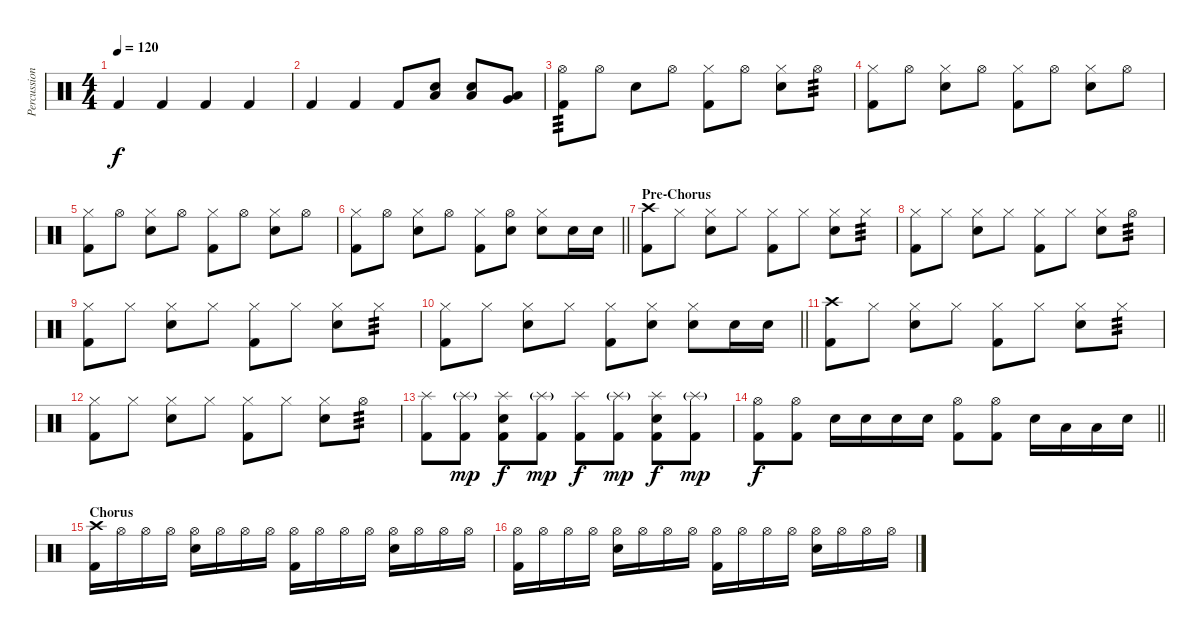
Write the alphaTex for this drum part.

\track ("Percussion" "Percussion") {instrument percussion}
\staff {score}
\articulation defaults
\ts (4 4)
\tempo 120
\clef neutral
\ks c "Kick (hit) 2".4{dy f} "Kick (hit) 2".4 "Kick (hit) 2".4 "Kick (hit) 2".4
|
"Kick (hit) 2".4 "Kick (hit) 2".4 "Kick (hit) 2".8 ("Electric Snare (hit)" "Low Floor Tom (hit)").8 ("Electric Snare (hit)" "Low Floor Tom (hit)").8 ("Low Tom (hit)" "Very Low Tom (hit)").8 |
("Kick (hit) 2" "Hi-Hat (open)").8{tp 3} "Hi-Hat (open)".8 "Electric Snare (hit)".8 "Hi-Hat (open)".8 ("Kick (hit) 2" "Hi-Hat (closed)").8 "Hi-Hat (open)".8 ("Electric Snare (hit)" "Hi-Hat (closed)").8 "Hi-Hat (open)".8{tp 3} |
("Kick (hit) 2" "Hi-Hat (closed)").8 "Hi-Hat (open)".8 ("Electric Snare (hit)" "Hi-Hat (closed)").8 "Hi-Hat (open)".8 ("Kick (hit) 2" "Hi-Hat (closed)").8 "Hi-Hat (open)".8 ("Electric Snare (hit)" "Hi-Hat (closed)").8 "Hi-Hat (open)".8 |
("Kick (hit) 2" "Hi-Hat (closed)").8 "Hi-Hat (open)".8 ("Electric Snare (hit)" "Hi-Hat (closed)").8 "Hi-Hat (open)".8 ("Kick (hit) 2" "Hi-Hat (closed)").8 "Hi-Hat (open)".8 ("Electric Snare (hit)" "Hi-Hat (closed)").8 "Hi-Hat (open)".8 |
\barLineRight lightlight
("Kick (hit) 2" "Hi-Hat (closed)").8 "Hi-Hat (open)".8 ("Electric Snare (hit)" "Hi-Hat (closed)").8 "Hi-Hat (open)".8 ("Kick (hit) 2" "Hi-Hat (closed)").8 ("Electric Snare (hit)" "Hi-Hat (open)").8 ("Electric Snare (hit)" "Hi-Hat (closed)").8 "Electric Snare (hit)".16 "Electric Snare (hit)".16 |
\section ("" "Pre-Chorus")
("Kick (hit) 2" "Crash high (hit)").8 "Hi-Hat (closed)".8 ("Electric Snare (hit)" "Hi-Hat (closed)").8 "Hi-Hat (closed)".8 ("Kick (hit) 2" "Hi-Hat (closed)").8 "Hi-Hat (closed)".8 ("Electric Snare (hit)" "Hi-Hat (closed)").8 "Hi-Hat (closed)".8{tp 3} |
("Kick (hit) 2" "Hi-Hat (closed)").8 "Hi-Hat (closed)".8 ("Electric Snare (hit)" "Hi-Hat (closed)").8 "Hi-Hat (closed)".8 ("Kick (hit) 2" "Hi-Hat (closed)").8 "Hi-Hat (closed)".8 ("Electric Snare (hit)" "Hi-Hat (closed)").8 "Hi-Hat (open)".8{tp 3} |
("Kick (hit) 2" "Hi-Hat (closed)").8 "Hi-Hat (closed)".8 ("Electric Snare (hit)" "Hi-Hat (closed)").8 "Hi-Hat (closed)".8 ("Kick (hit) 2" "Hi-Hat (closed)").8 "Hi-Hat (closed)".8 ("Electric Snare (hit)" "Hi-Hat (closed)").8 "Hi-Hat (closed)".8{tp 3} |
\barLineRight lightlight
("Kick (hit) 2" "Hi-Hat (closed)").8 "Hi-Hat (closed)".8 ("Electric Snare (hit)" "Hi-Hat (closed)").8 "Hi-Hat (closed)".8 ("Kick (hit) 2" "Hi-Hat (closed)").8 ("Electric Snare (hit)" "Hi-Hat (closed)").8 ("Electric Snare (hit)" "Hi-Hat (closed)").8 "Electric Snare (hit)".16 "Electric Snare (hit)".16 |
("Kick (hit) 2" "Crash high (hit)").8 "Hi-Hat (closed)".8 ("Electric Snare (hit)" "Hi-Hat (closed)").8 "Hi-Hat (closed)".8 ("Kick (hit) 2" "Hi-Hat (closed)").8 "Hi-Hat (closed)".8 ("Electric Snare (hit)" "Hi-Hat (closed)").8 "Hi-Hat (closed)".8{tp 3} |
("Kick (hit) 2" "Hi-Hat (closed)").8 "Hi-Hat (closed)".8 ("Electric Snare (hit)" "Hi-Hat (closed)").8 "Hi-Hat (closed)".8 ("Kick (hit) 2" "Hi-Hat (closed)").8 "Hi-Hat (closed)".8 ("Electric Snare (hit)" "Hi-Hat (closed)").8 "Hi-Hat (open)".8{tp 3} |
("Kick (hit) 2" "Splash (hit)").8 ("Kick (hit) 2" "Splash (hit)"{g}).8{dy mp} ("Kick (hit) 2" "Electric Snare (hit)" "Splash (hit)").8{dy f} ("Kick (hit) 2" "Splash (hit)"{g}).8{dy mp} ("Kick (hit) 2" "Splash (hit)").8{dy f} ("Kick (hit) 2" "Splash (hit)"{g}).8{dy mp} ("Kick (hit) 2" "Electric Snare (hit)" "Splash (hit)").8{dy f} ("Kick (hit) 2" "Splash (hit)"{g}).8{dy mp} |
\barLineRight lightlight
("Kick (hit) 2" "Hi-Hat (open)").8{dy f} ("Kick (hit) 2" "Hi-Hat (open)").8 "Electric Snare (hit)".16 "Electric Snare (hit)".16 "Electric Snare (hit)".16 "Electric Snare (hit)".16 ("Kick (hit) 2" "Hi-Hat (open)").8 ("Kick (hit) 2" "Hi-Hat (open)").8 "Electric Snare (hit)".16 "Low Tom (hit)".16 "Low Tom (hit)".16 "Electric Snare (hit)".16 |
\section ("" "Chorus")
("Crash high (hit)" "Kick (hit) 2").16 "Hi-Hat (open)".16 "Hi-Hat (open)".16 "Hi-Hat (open)".16 ("Hi-Hat (open)" "Electric Snare (hit)").16 "Hi-Hat (open)".16 "Hi-Hat (open)".16 "Hi-Hat (open)".16 ("Hi-Hat (open)" "Kick (hit) 2").16 "Hi-Hat (open)".16 "Hi-Hat (open)".16 "Hi-Hat (open)".16 ("Hi-Hat (open)" "Electric Snare (hit)").16 "Hi-Hat (open)".16 "Hi-Hat (open)".16 "Hi-Hat (open)".16 |
("Hi-Hat (open)" "Kick (hit) 2").16 "Hi-Hat (open)".16 "Hi-Hat (open)".16 "Hi-Hat (open)".16 ("Hi-Hat (open)" "Electric Snare (hit)").16 "Hi-Hat (open)".16 "Hi-Hat (open)".16 "Hi-Hat (open)".16 ("Hi-Hat (open)" "Kick (hit) 2").16 "Hi-Hat (open)".16 "Hi-Hat (open)".16 "Hi-Hat (open)".16 ("Hi-Hat (open)" "Electric Snare (hit)").16 "Hi-Hat (open)".16 "Hi-Hat (open)".16 "Hi-Hat (open)".16
